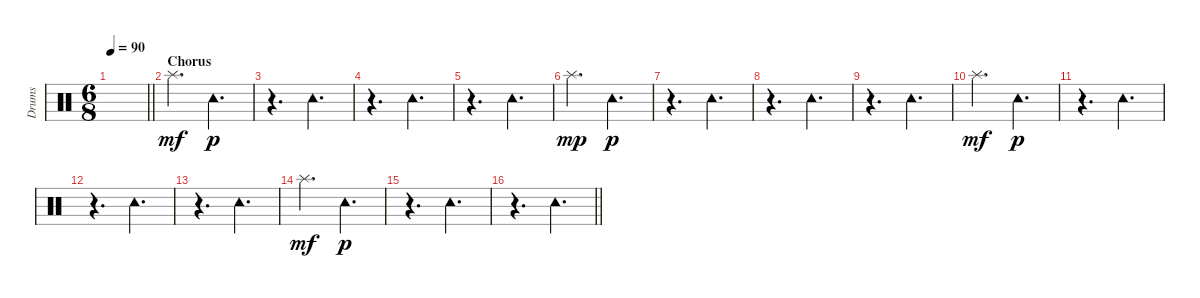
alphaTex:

\track ("Drums" "Drums") {instrument percussion}
\staff {score}
\articulation defaults
\ts (6 8)
\tempo 90
\clef neutral
\barLineRight lightlight
\ks c
|
\section ("" "Chorus")
"Splash (hit)".4{d dy mf} "Tambourine (hit)".4{d dy p} |
r.4{d} "Tambourine (hit)".4{d} |
r.4{d} "Tambourine (hit)".4{d} |
r.4{d} "Tambourine (hit)".4{d} |
"Splash (hit)".4{d dy mp} "Tambourine (hit)".4{d dy p} |
r.4{d} "Tambourine (hit)".4{d} |
r.4{d} "Tambourine (hit)".4{d} |
r.4{d} "Tambourine (hit)".4{d} |
"Splash (hit)".4{d dy mf} "Tambourine (hit)".4{d dy p} |
r.4{d} "Tambourine (hit)".4{d} |
r.4{d} "Tambourine (hit)".4{d} |
r.4{d} "Tambourine (hit)".4{d} |
"Splash (hit)".4{d dy mf} "Tambourine (hit)".4{d dy p} |
r.4{d} "Tambourine (hit)".4{d} |
\barLineRight lightlight
r.4{d} "Tambourine (hit)".4{d}
